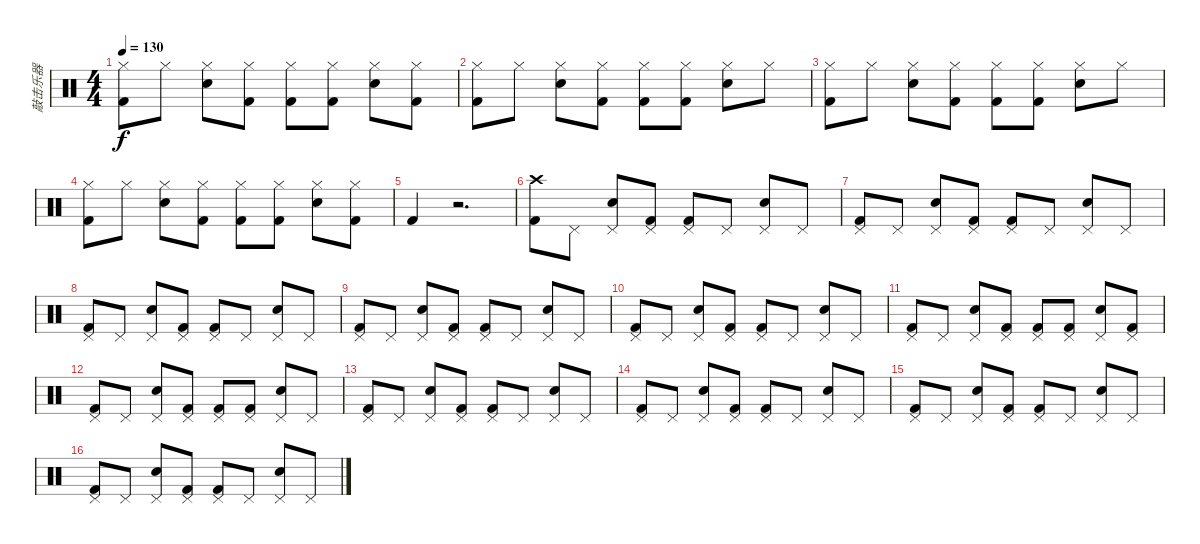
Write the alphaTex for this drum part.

\track ("敲击乐器" "敲击乐器") {instrument percussion}
\staff {score}
\articulation defaults
\ts (4 4)
\tempo 130
\clef neutral
\ks c
("Hi-Hat (closed)" "Kick (hit) 2").8{dy f} "Hi-Hat (closed)".8 ("Hi-Hat (closed)" "Electric Snare (hit)").8 ("Hi-Hat (closed)" "Kick (hit) 2").8 ("Hi-Hat (closed)" "Kick (hit) 2").8 ("Hi-Hat (closed)" "Kick (hit) 2").8 ("Hi-Hat (closed)" "Electric Snare (hit)").8 ("Hi-Hat (closed)" "Kick (hit) 2").8 |
("Hi-Hat (closed)" "Kick (hit) 2").8 "Hi-Hat (closed)".8 ("Hi-Hat (closed)" "Electric Snare (hit)").8 ("Hi-Hat (closed)" "Kick (hit) 2").8 ("Hi-Hat (closed)" "Kick (hit) 2").8 ("Hi-Hat (closed)" "Kick (hit) 2").8 ("Hi-Hat (closed)" "Electric Snare (hit)").8 "Hi-Hat (closed)".8 |
("Hi-Hat (closed)" "Kick (hit) 2").8 "Hi-Hat (closed)".8 ("Hi-Hat (closed)" "Electric Snare (hit)").8 ("Hi-Hat (closed)" "Kick (hit) 2").8 ("Hi-Hat (closed)" "Kick (hit) 2").8 ("Hi-Hat (closed)" "Kick (hit) 2").8 ("Hi-Hat (closed)" "Electric Snare (hit)").8 "Hi-Hat (closed)".8 |
("Hi-Hat (closed)" "Kick (hit) 2").8 "Hi-Hat (closed)".8 ("Hi-Hat (closed)" "Electric Snare (hit)").8 ("Hi-Hat (closed)" "Kick (hit) 2").8 ("Hi-Hat (closed)" "Kick (hit) 2").8 ("Hi-Hat (closed)" "Kick (hit) 2").8 ("Hi-Hat (closed)" "Electric Snare (hit)").8 ("Hi-Hat (closed)" "Kick (hit) 2").8 |
"Kick (hit) 2".4 r.2{d} |
("Crash high (hit)" "Kick (hit) 2").8 "Pedal Hi-Hat (hit)".8 ("Pedal Hi-Hat (hit)" "Electric Snare (hit)").8 ("Pedal Hi-Hat (hit)" "Kick (hit) 2").8 ("Pedal Hi-Hat (hit)" "Kick (hit) 2").8 "Pedal Hi-Hat (hit)".8 ("Pedal Hi-Hat (hit)" "Electric Snare (hit)").8 "Pedal Hi-Hat (hit)".8 |
("Pedal Hi-Hat (hit)" "Kick (hit) 2").8 "Pedal Hi-Hat (hit)".8 ("Pedal Hi-Hat (hit)" "Electric Snare (hit)").8 ("Pedal Hi-Hat (hit)" "Kick (hit) 2").8 ("Pedal Hi-Hat (hit)" "Kick (hit) 2").8 "Pedal Hi-Hat (hit)".8 ("Pedal Hi-Hat (hit)" "Electric Snare (hit)").8 "Pedal Hi-Hat (hit)".8 |
("Pedal Hi-Hat (hit)" "Kick (hit) 2").8 "Pedal Hi-Hat (hit)".8 ("Pedal Hi-Hat (hit)" "Electric Snare (hit)").8 ("Pedal Hi-Hat (hit)" "Kick (hit) 2").8 ("Pedal Hi-Hat (hit)" "Kick (hit) 2").8 "Pedal Hi-Hat (hit)".8 ("Pedal Hi-Hat (hit)" "Electric Snare (hit)").8 "Pedal Hi-Hat (hit)".8 |
("Pedal Hi-Hat (hit)" "Kick (hit) 2").8 "Pedal Hi-Hat (hit)".8 ("Pedal Hi-Hat (hit)" "Electric Snare (hit)").8 ("Pedal Hi-Hat (hit)" "Kick (hit) 2").8 ("Pedal Hi-Hat (hit)" "Kick (hit) 2").8 "Pedal Hi-Hat (hit)".8 ("Pedal Hi-Hat (hit)" "Electric Snare (hit)").8 "Pedal Hi-Hat (hit)".8 |
("Pedal Hi-Hat (hit)" "Kick (hit) 2").8 "Pedal Hi-Hat (hit)".8 ("Pedal Hi-Hat (hit)" "Electric Snare (hit)").8 ("Pedal Hi-Hat (hit)" "Kick (hit) 2").8 ("Pedal Hi-Hat (hit)" "Kick (hit) 2").8 "Pedal Hi-Hat (hit)".8 ("Pedal Hi-Hat (hit)" "Electric Snare (hit)").8 "Pedal Hi-Hat (hit)".8 |
("Pedal Hi-Hat (hit)" "Kick (hit) 2").8 "Pedal Hi-Hat (hit)".8 ("Pedal Hi-Hat (hit)" "Electric Snare (hit)").8 ("Pedal Hi-Hat (hit)" "Kick (hit) 2").8 ("Pedal Hi-Hat (hit)" "Kick (hit) 2").8 ("Pedal Hi-Hat (hit)" "Kick (hit) 2").8 ("Pedal Hi-Hat (hit)" "Electric Snare (hit)").8 ("Pedal Hi-Hat (hit)" "Kick (hit) 2").8 |
("Pedal Hi-Hat (hit)" "Kick (hit) 2").8 "Pedal Hi-Hat (hit)".8 ("Pedal Hi-Hat (hit)" "Electric Snare (hit)").8 ("Pedal Hi-Hat (hit)" "Kick (hit) 2").8 ("Pedal Hi-Hat (hit)" "Kick (hit) 2").8 ("Pedal Hi-Hat (hit)" "Kick (hit) 2").8 ("Pedal Hi-Hat (hit)" "Electric Snare (hit)").8 "Pedal Hi-Hat (hit)".8 |
("Pedal Hi-Hat (hit)" "Kick (hit) 2").8 "Pedal Hi-Hat (hit)".8 ("Pedal Hi-Hat (hit)" "Electric Snare (hit)").8 ("Pedal Hi-Hat (hit)" "Kick (hit) 2").8 ("Pedal Hi-Hat (hit)" "Kick (hit) 2").8 "Pedal Hi-Hat (hit)".8 ("Pedal Hi-Hat (hit)" "Electric Snare (hit)").8 "Pedal Hi-Hat (hit)".8 |
("Pedal Hi-Hat (hit)" "Kick (hit) 2").8 "Pedal Hi-Hat (hit)".8 ("Pedal Hi-Hat (hit)" "Electric Snare (hit)").8 ("Pedal Hi-Hat (hit)" "Kick (hit) 2").8 ("Pedal Hi-Hat (hit)" "Kick (hit) 2").8 "Pedal Hi-Hat (hit)".8 ("Pedal Hi-Hat (hit)" "Electric Snare (hit)").8 "Pedal Hi-Hat (hit)".8 |
("Pedal Hi-Hat (hit)" "Kick (hit) 2").8 "Pedal Hi-Hat (hit)".8 ("Pedal Hi-Hat (hit)" "Electric Snare (hit)").8 ("Pedal Hi-Hat (hit)" "Kick (hit) 2").8 ("Pedal Hi-Hat (hit)" "Kick (hit) 2").8 "Pedal Hi-Hat (hit)".8 ("Pedal Hi-Hat (hit)" "Electric Snare (hit)").8 "Pedal Hi-Hat (hit)".8 |
("Pedal Hi-Hat (hit)" "Kick (hit) 2").8 "Pedal Hi-Hat (hit)".8 ("Pedal Hi-Hat (hit)" "Electric Snare (hit)").8 ("Pedal Hi-Hat (hit)" "Kick (hit) 2").8 ("Pedal Hi-Hat (hit)" "Kick (hit) 2").8 "Pedal Hi-Hat (hit)".8 ("Pedal Hi-Hat (hit)" "Electric Snare (hit)").8 "Pedal Hi-Hat (hit)".8
